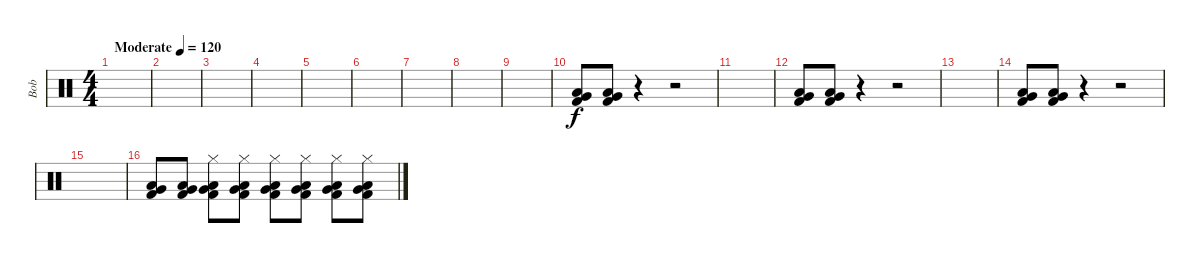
\track ("Bob" "Bob") {instrument percussion}
\staff {score}
\articulation defaults
\ts (4 4)
\tempo (120 "Moderate")
\clef neutral
\ks c
|
|
|
|
|
|
|
|
|
("Very Low Tom (hit)" "Low Tom (hit)" "Kick (hit) 2").8 ("Very Low Tom (hit)" "Low Tom (hit)" "Kick (hit) 2").8 r.4 r.2 |
|
("Very Low Tom (hit)" "Low Tom (hit)" "Kick (hit) 2").8 ("Very Low Tom (hit)" "Low Tom (hit)" "Kick (hit) 2").8 r.4 r.2 |
|
("Very Low Tom (hit)" "Low Tom (hit)" "Kick (hit) 2").8 ("Very Low Tom (hit)" "Low Tom (hit)" "Kick (hit) 2").8 r.4 r.2 |
|
("Very Low Tom (hit)" "Low Tom (hit)" "Kick (hit) 2").8 ("Very Low Tom (hit)" "Low Tom (hit)" "Kick (hit) 2").8 ("Hi-Hat (closed)" "Very Low Tom (hit)" "Low Tom (hit)" "Kick (hit) 2").8{volume 2} ("Hi-Hat (closed)" "Very Low Tom (hit)" "Low Tom (hit)" "Kick (hit) 2").8{volume 4} ("Hi-Hat (closed)" "Very Low Tom (hit)" "Low Tom (hit)" "Kick (hit) 2").8{volume 6} ("Hi-Hat (closed)" "Very Low Tom (hit)" "Low Tom (hit)" "Kick (hit) 2").8{volume 7} ("Hi-Hat (closed)" "Very Low Tom (hit)" "Low Tom (hit)" "Kick (hit) 2").8{volume 8} ("Hi-Hat (closed)" "Very Low Tom (hit)" "Low Tom (hit)" "Kick (hit) 2").8{volume 9}
